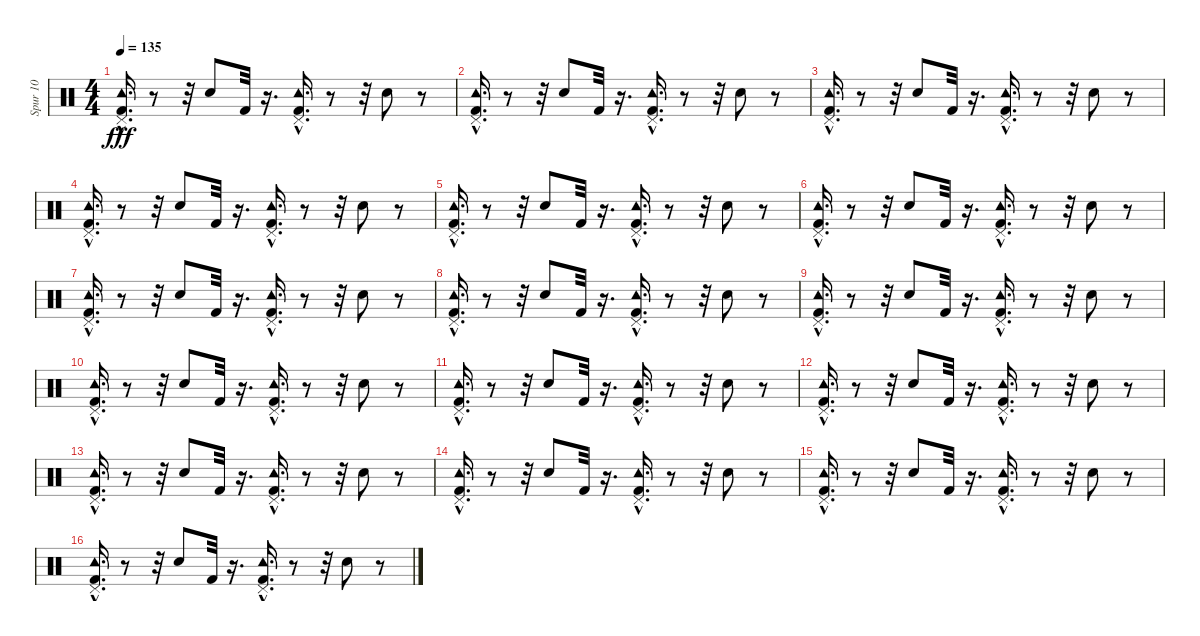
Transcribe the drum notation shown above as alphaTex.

\track ("Spur 10" "Spur 10") {instrument percussion}
\staff {score}
\articulation defaults
\ts (4 4)
\tempo 135
\clef neutral
\ks c
("Pedal Hi-Hat (hit)" "Tambourine (hit)" "Kick (hit) 2"{hac}).16{d dy fff} r.8 r.32 "Electric Snare (hit)".8 "Kick (hit) 2".32 r.16{d} ("Tambourine (hit)" "Pedal Hi-Hat (hit)" "Kick (hit) 2"{hac}).16{d} r.8 r.32 "Electric Snare (hit)".8 r.8 |
("Pedal Hi-Hat (hit)" "Tambourine (hit)" "Kick (hit) 2"{hac}).16{d} r.8 r.32 "Electric Snare (hit)".8 "Kick (hit) 2".32 r.16{d} ("Tambourine (hit)" "Pedal Hi-Hat (hit)" "Kick (hit) 2"{hac}).16{d} r.8 r.32 "Electric Snare (hit)".8 r.8 |
("Tambourine (hit)" "Kick (hit) 2"{hac} "Pedal Hi-Hat (hit)").16{d} r.8 r.32 "Electric Snare (hit)".8 "Kick (hit) 2".32 r.16{d} ("Pedal Hi-Hat (hit)" "Tambourine (hit)" "Kick (hit) 2"{hac}).16{d} r.8 r.32 "Electric Snare (hit)".8 r.8 |
("Kick (hit) 2"{hac} "Tambourine (hit)" "Pedal Hi-Hat (hit)").16{d} r.8 r.32 "Electric Snare (hit)".8 "Kick (hit) 2".32 r.16{d} ("Kick (hit) 2"{hac} "Tambourine (hit)" "Pedal Hi-Hat (hit)").16{d} r.8 r.32 "Electric Snare (hit)".8 r.8 |
("Kick (hit) 2"{hac} "Pedal Hi-Hat (hit)" "Tambourine (hit)").16{d} r.8 r.32 "Electric Snare (hit)".8 "Kick (hit) 2".32 r.16{d} ("Pedal Hi-Hat (hit)" "Tambourine (hit)" "Kick (hit) 2"{hac}).16{d} r.8 r.32 "Electric Snare (hit)".8 r.8 |
("Pedal Hi-Hat (hit)" "Tambourine (hit)" "Kick (hit) 2"{hac}).16{d} r.8 r.32 "Electric Snare (hit)".8 "Kick (hit) 2".32 r.16{d} ("Kick (hit) 2"{hac} "Tambourine (hit)" "Pedal Hi-Hat (hit)").16{d} r.8 r.32 "Electric Snare (hit)".8 r.8 |
("Tambourine (hit)" "Kick (hit) 2"{hac} "Pedal Hi-Hat (hit)").16{d} r.8 r.32 "Electric Snare (hit)".8 "Kick (hit) 2".32 r.16{d} ("Pedal Hi-Hat (hit)" "Tambourine (hit)" "Kick (hit) 2"{hac}).16{d} r.8 r.32 "Electric Snare (hit)".8 r.8 |
("Tambourine (hit)" "Kick (hit) 2"{hac} "Pedal Hi-Hat (hit)").16{d} r.8 r.32 "Electric Snare (hit)".8 "Kick (hit) 2".32 r.16{d} ("Kick (hit) 2"{hac} "Pedal Hi-Hat (hit)" "Tambourine (hit)").16{d} r.8 r.32 "Electric Snare (hit)".8 r.8 |
("Tambourine (hit)" "Pedal Hi-Hat (hit)" "Kick (hit) 2"{hac}).16{d} r.8 r.32 "Electric Snare (hit)".8 "Kick (hit) 2".32 r.16{d} ("Pedal Hi-Hat (hit)" "Tambourine (hit)" "Kick (hit) 2"{hac}).16{d} r.8 r.32 "Electric Snare (hit)".8 r.8 |
("Kick (hit) 2"{hac} "Pedal Hi-Hat (hit)" "Tambourine (hit)").16{d} r.8 r.32 "Electric Snare (hit)".8 "Kick (hit) 2".32 r.16{d} ("Pedal Hi-Hat (hit)" "Kick (hit) 2"{hac} "Tambourine (hit)").16{d} r.8 r.32 "Electric Snare (hit)".8 r.8 |
("Tambourine (hit)" "Pedal Hi-Hat (hit)" "Kick (hit) 2"{hac}).16{d} r.8 r.32 "Electric Snare (hit)".8 "Kick (hit) 2".32 r.16{d} ("Kick (hit) 2"{hac} "Pedal Hi-Hat (hit)" "Tambourine (hit)").16{d} r.8 r.32 "Electric Snare (hit)".8 r.8 |
("Kick (hit) 2"{hac} "Pedal Hi-Hat (hit)" "Tambourine (hit)").16{d} r.8 r.32 "Electric Snare (hit)".8 "Kick (hit) 2".32 r.16{d} ("Tambourine (hit)" "Pedal Hi-Hat (hit)" "Kick (hit) 2"{hac}).16{d} r.8 r.32 "Electric Snare (hit)".8 r.8 |
("Kick (hit) 2"{hac} "Pedal Hi-Hat (hit)" "Tambourine (hit)").16{d} r.8 r.32 "Electric Snare (hit)".8 "Kick (hit) 2".32 r.16{d} ("Kick (hit) 2"{hac} "Tambourine (hit)" "Pedal Hi-Hat (hit)").16{d} r.8 r.32 "Electric Snare (hit)".8 r.8 |
("Pedal Hi-Hat (hit)" "Tambourine (hit)" "Kick (hit) 2"{hac}).16{d} r.8 r.32 "Electric Snare (hit)".8 "Kick (hit) 2".32 r.16{d} ("Pedal Hi-Hat (hit)" "Kick (hit) 2"{hac} "Tambourine (hit)").16{d} r.8 r.32 "Electric Snare (hit)".8 r.8 |
("Tambourine (hit)" "Kick (hit) 2"{hac} "Pedal Hi-Hat (hit)").16{d} r.8 r.32 "Electric Snare (hit)".8 "Kick (hit) 2".32 r.16{d} ("Pedal Hi-Hat (hit)" "Tambourine (hit)" "Kick (hit) 2"{hac}).16{d} r.8 r.32 "Electric Snare (hit)".8 r.8 |
("Kick (hit) 2"{hac} "Pedal Hi-Hat (hit)" "Tambourine (hit)").16{d} r.8 r.32 "Electric Snare (hit)".8 "Kick (hit) 2".32 r.16{d} ("Pedal Hi-Hat (hit)" "Kick (hit) 2"{hac} "Tambourine (hit)").16{d} r.8 r.32 "Electric Snare (hit)".8 r.8
